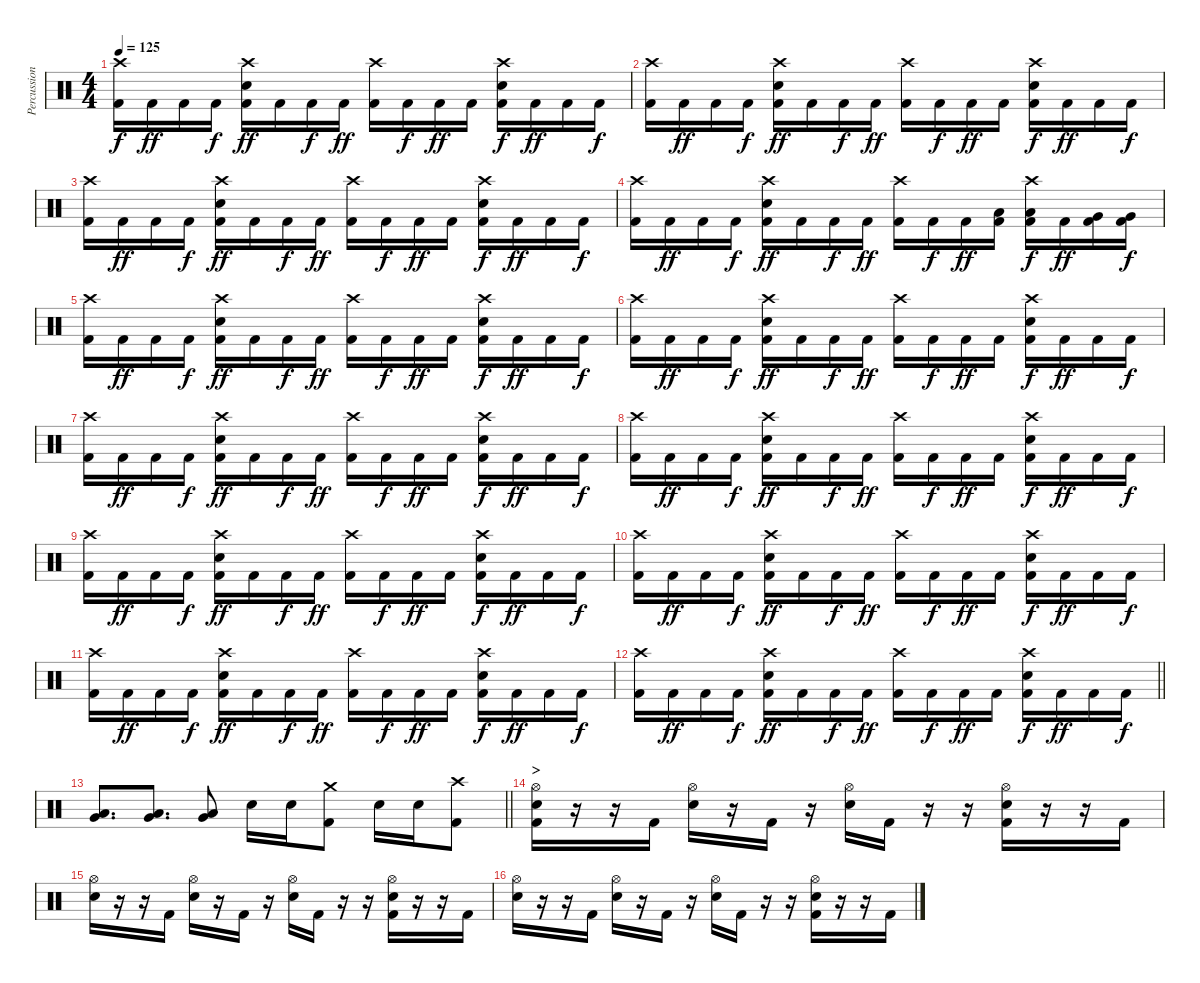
\track ("Percussion" "Percussion") {instrument percussion}
\staff {score}
\articulation defaults
\ts (4 4)
\tempo 125
\clef neutral
\ks c
("Crash high (hit)" "Kick (hit) 2").16{dy f} "Kick (hit) 2".16{dy ff} "Kick (hit) 2".16 "Kick (hit) 2".16{dy f} ("Crash high (hit)" "Electric Snare (hit)" "Kick (hit) 2").16{dy ff} "Kick (hit) 2".16 "Kick (hit) 2".16{dy f} "Kick (hit) 2".16{dy ff} ("Crash high (hit)" "Kick (hit) 2").16 "Kick (hit) 2".16{dy f} "Kick (hit) 2".16{dy ff} "Kick (hit) 2".16 ("Crash high (hit)" "Electric Snare (hit)" "Kick (hit) 2").16{dy f} "Kick (hit) 2".16{dy ff} "Kick (hit) 2".16 "Kick (hit) 2".16{dy f} |
("Crash high (hit)" "Kick (hit) 2").16 "Kick (hit) 2".16{dy ff} "Kick (hit) 2".16 "Kick (hit) 2".16{dy f} ("Crash high (hit)" "Electric Snare (hit)" "Kick (hit) 2").16{dy ff} "Kick (hit) 2".16 "Kick (hit) 2".16{dy f} "Kick (hit) 2".16{dy ff} ("Crash high (hit)" "Kick (hit) 2").16 "Kick (hit) 2".16{dy f} "Kick (hit) 2".16{dy ff} "Kick (hit) 2".16 ("Crash high (hit)" "Electric Snare (hit)" "Kick (hit) 2").16{dy f} "Kick (hit) 2".16{dy ff} "Kick (hit) 2".16 "Kick (hit) 2".16{dy f} |
("Crash high (hit)" "Kick (hit) 2").16 "Kick (hit) 2".16{dy ff} "Kick (hit) 2".16 "Kick (hit) 2".16{dy f} ("Crash high (hit)" "Electric Snare (hit)" "Kick (hit) 2").16{dy ff} "Kick (hit) 2".16 "Kick (hit) 2".16{dy f} "Kick (hit) 2".16{dy ff} ("Crash high (hit)" "Kick (hit) 2").16 "Kick (hit) 2".16{dy f} "Kick (hit) 2".16{dy ff} "Kick (hit) 2".16 ("Crash high (hit)" "Electric Snare (hit)" "Kick (hit) 2").16{dy f} "Kick (hit) 2".16{dy ff} "Kick (hit) 2".16 "Kick (hit) 2".16{dy f} |
("Crash high (hit)" "Kick (hit) 2").16 "Kick (hit) 2".16{dy ff} "Kick (hit) 2".16 "Kick (hit) 2".16{dy f} ("Crash high (hit)" "Electric Snare (hit)" "Kick (hit) 2").16{dy ff} "Kick (hit) 2".16 "Kick (hit) 2".16{dy f} "Kick (hit) 2".16{dy ff} ("Crash high (hit)" "Kick (hit) 2").16 "Kick (hit) 2".16{dy f} "Kick (hit) 2".16{dy ff} ("Low Tom (hit)" "Kick (hit) 2").16 ("Crash high (hit)" "Low Tom (hit)" "Kick (hit) 2").16{dy f} "Kick (hit) 2".16{dy ff} ("Very Low Tom (hit)" "Kick (hit) 2").16 ("Very Low Tom (hit)" "Kick (hit) 2").16{dy f} |
("Crash high (hit)" "Kick (hit) 2").16 "Kick (hit) 2".16{dy ff} "Kick (hit) 2".16 "Kick (hit) 2".16{dy f} ("Crash high (hit)" "Electric Snare (hit)" "Kick (hit) 2").16{dy ff} "Kick (hit) 2".16 "Kick (hit) 2".16{dy f} "Kick (hit) 2".16{dy ff} ("Crash high (hit)" "Kick (hit) 2").16 "Kick (hit) 2".16{dy f} "Kick (hit) 2".16{dy ff} "Kick (hit) 2".16 ("Crash high (hit)" "Electric Snare (hit)" "Kick (hit) 2").16{dy f} "Kick (hit) 2".16{dy ff} "Kick (hit) 2".16 "Kick (hit) 2".16{dy f} |
("Crash high (hit)" "Kick (hit) 2").16 "Kick (hit) 2".16{dy ff} "Kick (hit) 2".16 "Kick (hit) 2".16{dy f} ("Crash high (hit)" "Electric Snare (hit)" "Kick (hit) 2").16{dy ff} "Kick (hit) 2".16 "Kick (hit) 2".16{dy f} "Kick (hit) 2".16{dy ff} ("Crash high (hit)" "Kick (hit) 2").16 "Kick (hit) 2".16{dy f} "Kick (hit) 2".16{dy ff} "Kick (hit) 2".16 ("Crash high (hit)" "Electric Snare (hit)" "Kick (hit) 2").16{dy f} "Kick (hit) 2".16{dy ff} "Kick (hit) 2".16 "Kick (hit) 2".16{dy f} |
("Crash high (hit)" "Kick (hit) 2").16 "Kick (hit) 2".16{dy ff} "Kick (hit) 2".16 "Kick (hit) 2".16{dy f} ("Crash high (hit)" "Electric Snare (hit)" "Kick (hit) 2").16{dy ff} "Kick (hit) 2".16 "Kick (hit) 2".16{dy f} "Kick (hit) 2".16{dy ff} ("Crash high (hit)" "Kick (hit) 2").16 "Kick (hit) 2".16{dy f} "Kick (hit) 2".16{dy ff} "Kick (hit) 2".16 ("Crash high (hit)" "Electric Snare (hit)" "Kick (hit) 2").16{dy f} "Kick (hit) 2".16{dy ff} "Kick (hit) 2".16 "Kick (hit) 2".16{dy f} |
("Crash high (hit)" "Kick (hit) 2").16 "Kick (hit) 2".16{dy ff} "Kick (hit) 2".16 "Kick (hit) 2".16{dy f} ("Crash high (hit)" "Electric Snare (hit)" "Kick (hit) 2").16{dy ff} "Kick (hit) 2".16 "Kick (hit) 2".16{dy f} "Kick (hit) 2".16{dy ff} ("Crash high (hit)" "Kick (hit) 2").16 "Kick (hit) 2".16{dy f} "Kick (hit) 2".16{dy ff} "Kick (hit) 2".16 ("Crash high (hit)" "Electric Snare (hit)" "Kick (hit) 2").16{dy f} "Kick (hit) 2".16{dy ff} "Kick (hit) 2".16 "Kick (hit) 2".16{dy f} |
("Crash high (hit)" "Kick (hit) 2").16 "Kick (hit) 2".16{dy ff} "Kick (hit) 2".16 "Kick (hit) 2".16{dy f} ("Crash high (hit)" "Electric Snare (hit)" "Kick (hit) 2").16{dy ff} "Kick (hit) 2".16 "Kick (hit) 2".16{dy f} "Kick (hit) 2".16{dy ff} ("Crash high (hit)" "Kick (hit) 2").16 "Kick (hit) 2".16{dy f} "Kick (hit) 2".16{dy ff} "Kick (hit) 2".16 ("Crash high (hit)" "Electric Snare (hit)" "Kick (hit) 2").16{dy f} "Kick (hit) 2".16{dy ff} "Kick (hit) 2".16 "Kick (hit) 2".16{dy f} |
("Crash high (hit)" "Kick (hit) 2").16 "Kick (hit) 2".16{dy ff} "Kick (hit) 2".16 "Kick (hit) 2".16{dy f} ("Crash high (hit)" "Electric Snare (hit)" "Kick (hit) 2").16{dy ff} "Kick (hit) 2".16 "Kick (hit) 2".16{dy f} "Kick (hit) 2".16{dy ff} ("Crash high (hit)" "Kick (hit) 2").16 "Kick (hit) 2".16{dy f} "Kick (hit) 2".16{dy ff} "Kick (hit) 2".16 ("Crash high (hit)" "Electric Snare (hit)" "Kick (hit) 2").16{dy f} "Kick (hit) 2".16{dy ff} "Kick (hit) 2".16 "Kick (hit) 2".16{dy f} |
("Crash high (hit)" "Kick (hit) 2").16 "Kick (hit) 2".16{dy ff} "Kick (hit) 2".16 "Kick (hit) 2".16{dy f} ("Crash high (hit)" "Electric Snare (hit)" "Kick (hit) 2").16{dy ff} "Kick (hit) 2".16 "Kick (hit) 2".16{dy f} "Kick (hit) 2".16{dy ff} ("Crash high (hit)" "Kick (hit) 2").16 "Kick (hit) 2".16{dy f} "Kick (hit) 2".16{dy ff} "Kick (hit) 2".16 ("Crash high (hit)" "Electric Snare (hit)" "Kick (hit) 2").16{dy f} "Kick (hit) 2".16{dy ff} "Kick (hit) 2".16 "Kick (hit) 2".16{dy f} |
\barLineRight lightlight
("Crash high (hit)" "Kick (hit) 2").16 "Kick (hit) 2".16{dy ff} "Kick (hit) 2".16 "Kick (hit) 2".16{dy f} ("Crash high (hit)" "Electric Snare (hit)" "Kick (hit) 2").16{dy ff} "Kick (hit) 2".16 "Kick (hit) 2".16{dy f} "Kick (hit) 2".16{dy ff} ("Crash high (hit)" "Kick (hit) 2").16 "Kick (hit) 2".16{dy f} "Kick (hit) 2".16{dy ff} "Kick (hit) 2".16 ("Crash high (hit)" "Electric Snare (hit)" "Kick (hit) 2").16{dy f} "Kick (hit) 2".16{dy ff} "Kick (hit) 2".16 "Kick (hit) 2".16{dy f} |
\barLineRight lightlight
("Low Tom (hit)" "Very Low Tom (hit)").8{d} ("Low Tom (hit)" "Very Low Tom (hit)").8{d} ("Low Tom (hit)" "Very Low Tom (hit)").8 "Electric Snare (hit)".16 "Electric Snare (hit)".16 ("Crash medium (hit)" "Kick (hit) 2").8 "Electric Snare (hit)".16 "Electric Snare (hit)".16 ("Crash high (hit)" "Kick (hit) 2").8 |
\section ("" ">")
("Hi-Hat (open)" "Electric Snare (hit)" "Kick (hit) 2").16 r.16 r.16 "Kick (hit) 2".16 ("Hi-Hat (open)" "Electric Snare (hit)").16 r.16 "Kick (hit) 2".16 r.16 ("Hi-Hat (open)" "Electric Snare (hit)").16 "Kick (hit) 2".16 r.16 r.16 ("Hi-Hat (open)" "Electric Snare (hit)" "Kick (hit) 2").16 r.16 r.16 "Kick (hit) 2".16 |
("Hi-Hat (open)" "Electric Snare (hit)").16 r.16 r.16 "Kick (hit) 2".16 ("Hi-Hat (open)" "Electric Snare (hit)").16 r.16 "Kick (hit) 2".16 r.16 ("Hi-Hat (open)" "Electric Snare (hit)").16 "Kick (hit) 2".16 r.16 r.16 ("Hi-Hat (open)" "Electric Snare (hit)" "Kick (hit) 2").16 r.16 r.16 "Kick (hit) 2".16 |
("Hi-Hat (open)" "Electric Snare (hit)").16 r.16 r.16 "Kick (hit) 2".16 ("Hi-Hat (open)" "Electric Snare (hit)").16 r.16 "Kick (hit) 2".16 r.16 ("Hi-Hat (open)" "Electric Snare (hit)").16 "Kick (hit) 2".16 r.16 r.16 ("Hi-Hat (open)" "Electric Snare (hit)" "Kick (hit) 2").16 r.16 r.16 "Kick (hit) 2".16
